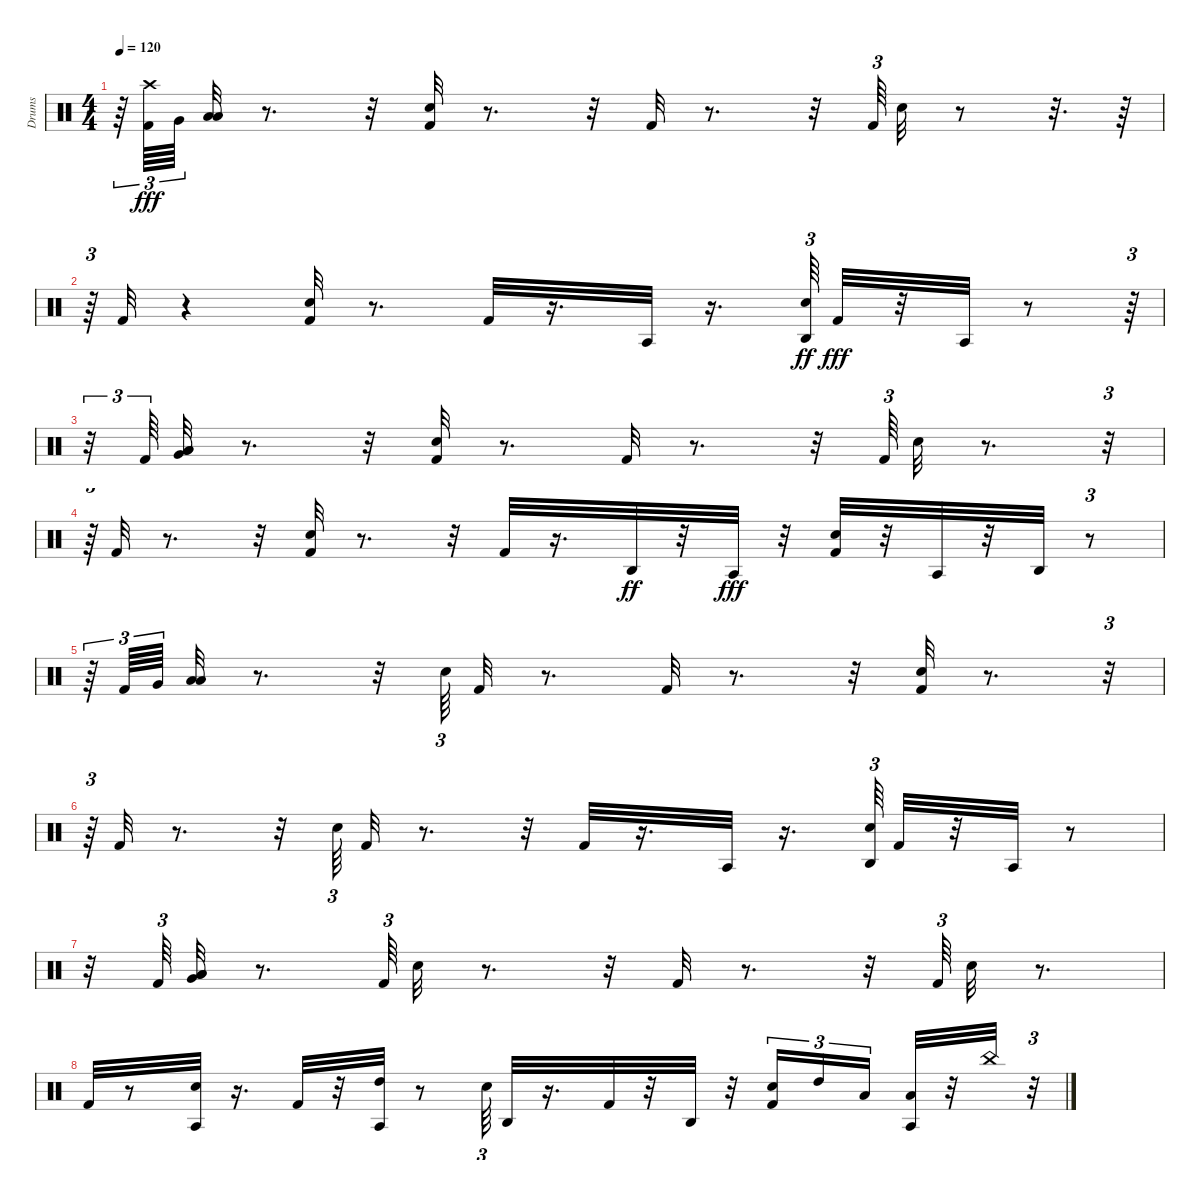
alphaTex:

\track ("Drums" "Drums") {instrument percussion}
\staff {score}
\articulation defaults
\ts (4 4)
\tempo 120
\clef neutral
\ks c
r.64{tu (3 2) dy mf} ("Kick (hit) 2" "Crash high (hit)").64{tu (3 2) dy fff} "Very Low Tom (hit)".64{tu (3 2) beam splitsecondary} ("Low Floor Tom (hit)" "Low Tom (hit)").32 r.8{d} r.32 ("Snare (hit) 2" "Kick (hit) 2").32 r.8{d} r.32 "Kick (hit) 2".32 r.8{d} r.32 "Kick (hit) 2".64{tu (3 2)} "Snare (hit) 2".32 r.8 r.32{d} r.64 |
r.64{tu (3 2)} "Kick (hit) 2".32 r.4 ("Snare (hit) 2" "Kick (hit) 2").32 r.8{d} "Kick (hit) 2".32 r.16{d} "Agogo tow (hit)".32 r.16{d} ("Snare (hit) 2" "Agogo high (hit)").64{tu (3 2) dy ff} "Kick (hit) 2".32{dy fff} r.32 "Agogo tow (hit)".32 r.8 r.64{tu (3 2)} |
r.32{tu (3 2)} "Kick (hit) 2".64{tu (3 2)} ("Very Low Tom (hit)" "Low Floor Tom (hit)" "Low Tom (hit)").32 r.8{d} r.32 ("Snare (hit) 2" "Kick (hit) 2").32 r.8{d} "Kick (hit) 2".32 r.8{d} r.32 "Kick (hit) 2".64{tu (3 2)} "Snare (hit) 2".32 r.8{d} r.32{tu (3 2)} |
r.64{tu (3 2)} "Kick (hit) 2".32 r.8{d} r.32 ("Snare (hit) 2" "Kick (hit) 2").32 r.8{d} r.32 "Kick (hit) 2".32 r.16{d} "Agogo high (hit)".32{dy ff} r.32 "Agogo tow (hit)".32{dy fff} r.32 ("Snare (hit) 2" "Kick (hit) 2").32 r.32 "Agogo tow (hit)".32 r.32 "Agogo high (hit)".32 r.8{tu (3 2)} |
r.64{tu (3 2)} "Kick (hit) 2".64{tu (3 2)} "Very Low Tom (hit)".64{tu (3 2) beam splitsecondary} ("Low Floor Tom (hit)" "Low Tom (hit)").32 r.8{d} r.32 "Snare (hit) 2".64{tu (3 2)} "Kick (hit) 2".32 r.8{d} "Kick (hit) 2".32 r.8{d} r.32 ("Kick (hit) 2" "Snare (hit) 2").32 r.8{d} r.32{tu (3 2)} |
r.64{tu (3 2)} "Kick (hit) 2".32 r.8{d} r.32 "Snare (hit) 2".64{tu (3 2)} "Kick (hit) 2".32 r.8{d} r.32 "Kick (hit) 2".32 r.16{d} "Agogo tow (hit)".32 r.16{d} ("Agogo high (hit)" "Snare (hit) 2").64{tu (3 2)} "Kick (hit) 2".32 r.32 "Agogo tow (hit)".32 r.8 |
r.32 "Kick (hit) 2".64{tu (3 2)} ("Very Low Tom (hit)" "Low Floor Tom (hit)" "Low Tom (hit)").32 r.8{d} "Kick (hit) 2".64{tu (3 2)} "Snare (hit) 2".32 r.8{d} r.32 "Kick (hit) 2".32 r.8{d} r.32 "Kick (hit) 2".64{tu (3 2)} "Snare (hit) 2".32 r.8{d} |
"Kick (hit) 2".32 r.8 ("Snare (hit) 2" "Agogo tow (hit)").32 r.16{d} "Kick (hit) 2".32 r.32 ("High Tom (hit)" "Agogo tow (hit)").32 r.8 "Snare (hit) 2".64{tu (3 2)} "Agogo high (hit)".32 r.16{d} "Kick (hit) 2".32 r.32 "Agogo high (hit)".32 r.32 ("Snare (hit) 2" "Kick (hit) 2").16{tu (3 2)} "High Tom (hit)".16{tu (3 2)} "Low Tom (hit)".16{tu (3 2) beam splitsecondary} ("Agogo tow (hit)" "Low Tom (hit)").32 r.32 "China (hit)".32 r.32{tu (3 2)}
